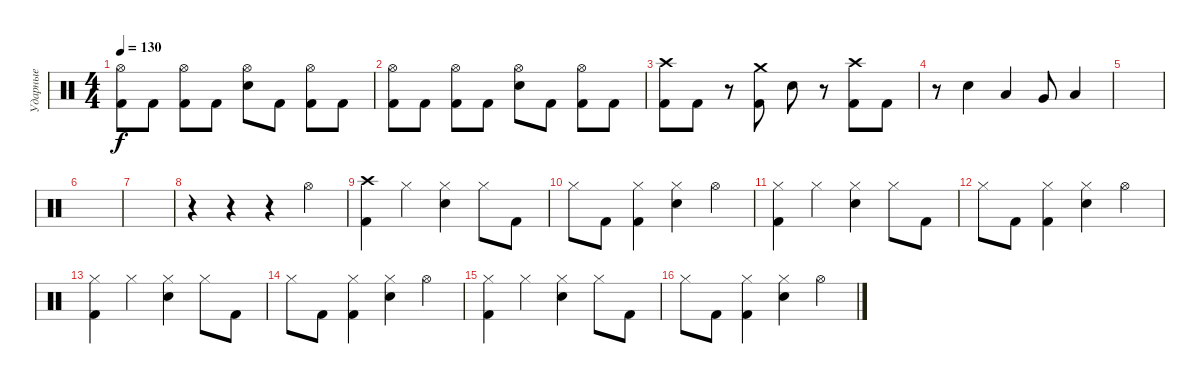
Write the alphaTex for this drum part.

\track ("Ударные" "Ударные") {instrument percussion}
\staff {score}
\articulation defaults
\ts (4 4)
\tempo 130
\clef neutral
\ks c
("Hi-Hat (open)" "Kick (hit) 2").8{dy f} "Kick (hit) 2".8 ("Hi-Hat (open)" "Kick (hit) 2").8 "Kick (hit) 2".8 ("Hi-Hat (open)" "Snare (hit) 2").8 "Kick (hit) 2".8 ("Hi-Hat (open)" "Kick (hit) 2").8 "Kick (hit) 2".8 |
("Hi-Hat (open)" "Kick (hit) 2").8 "Kick (hit) 2".8 ("Hi-Hat (open)" "Kick (hit) 2").8 "Kick (hit) 2".8 ("Hi-Hat (open)" "Snare (hit) 2").8 "Kick (hit) 2".8 ("Hi-Hat (open)" "Kick (hit) 2").8 "Kick (hit) 2".8 |
("Crash high (hit)" "Kick (hit) 2").8 "Kick (hit) 2".8 r.8 ("Crash medium (hit)" "Kick (hit) 2").8 "Snare (hit) 2".8 r.8 ("Crash high (hit)" "Kick (hit) 2").8 "Kick (hit) 2".8 |
r.8 "Snare (hit) 2".4 "Low Tom (hit)".4 "Very Low Tom (hit)".8 "Low Floor Tom (hit)".4 |
|
|
|
r.4 r.4 r.4 "Hi-Hat (open)".4 |
("Crash high (hit)" "Kick (hit) 2").4 "Hi-Hat (closed)".4 ("Hi-Hat (closed)" "Snare (hit) 2").4 "Hi-Hat (closed)".8 "Kick (hit) 2".8 |
"Hi-Hat (closed)".8 "Kick (hit) 2".8 ("Hi-Hat (closed)" "Kick (hit) 2").4 ("Hi-Hat (closed)" "Snare (hit) 2").4 "Hi-Hat (open)".4 |
("Hi-Hat (closed)" "Kick (hit) 2").4 "Hi-Hat (closed)".4 ("Hi-Hat (closed)" "Snare (hit) 2").4 "Hi-Hat (closed)".8 "Kick (hit) 2".8 |
"Hi-Hat (closed)".8 "Kick (hit) 2".8 ("Hi-Hat (closed)" "Kick (hit) 2").4 ("Hi-Hat (closed)" "Snare (hit) 2").4 "Hi-Hat (open)".4 |
("Hi-Hat (closed)" "Kick (hit) 2").4 "Hi-Hat (closed)".4 ("Hi-Hat (closed)" "Snare (hit) 2").4 "Hi-Hat (closed)".8 "Kick (hit) 2".8 |
"Hi-Hat (closed)".8 "Kick (hit) 2".8 ("Hi-Hat (closed)" "Kick (hit) 2").4 ("Hi-Hat (closed)" "Snare (hit) 2").4 "Hi-Hat (open)".4 |
("Hi-Hat (closed)" "Kick (hit) 2").4 "Hi-Hat (closed)".4 ("Hi-Hat (closed)" "Snare (hit) 2").4 "Hi-Hat (closed)".8 "Kick (hit) 2".8 |
"Hi-Hat (closed)".8 "Kick (hit) 2".8 ("Hi-Hat (closed)" "Kick (hit) 2").4 ("Hi-Hat (closed)" "Snare (hit) 2").4 "Hi-Hat (open)".4
